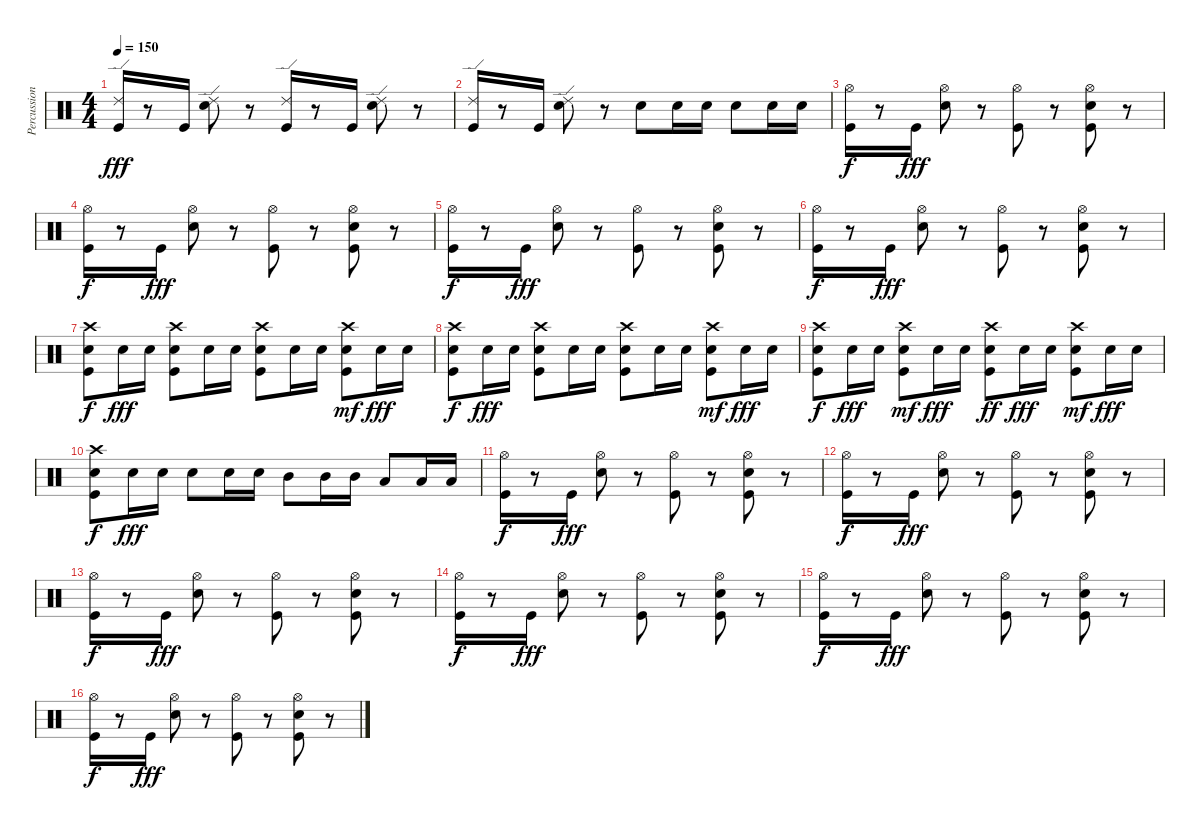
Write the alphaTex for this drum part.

\track ("Percussion" "Percussion") {instrument percussion}
\staff {score}
\articulation defaults
\ts (4 4)
\tempo 150
\clef neutral
\ks c
("Kick (hit)" "Ride (edge) 2").16{dy fff} r.8 "Kick (hit)".16 ("Electric Snare (hit)" "Ride (edge) 2").8 r.8 ("Kick (hit)" "Ride (edge) 2").16 r.8 "Kick (hit)".16 ("Electric Snare (hit)" "Ride (edge) 2").8 r.8 |
("Kick (hit)" "Ride (edge) 2").16 r.8 "Kick (hit)".16 ("Electric Snare (hit)" "Ride (edge) 2").8 r.8 "Electric Snare (hit)".8 "Electric Snare (hit)".16 "Electric Snare (hit)".16 "Electric Snare (hit)".8 "Electric Snare (hit)".16 "Electric Snare (hit)".16 |
("Kick (hit)" "Hi-Hat (open)").16{dy f} r.8 "Kick (hit)".16{dy fff} ("Electric Snare (hit)" "Hi-Hat (open)").8 r.8 ("Kick (hit)" "Hi-Hat (open)").8 r.8 ("Kick (hit)" "Electric Snare (hit)" "Hi-Hat (open)").8 r.8 |
("Kick (hit)" "Hi-Hat (open)").16{dy f} r.8 "Kick (hit)".16{dy fff} ("Electric Snare (hit)" "Hi-Hat (open)").8 r.8 ("Kick (hit)" "Hi-Hat (open)").8 r.8 ("Kick (hit)" "Electric Snare (hit)" "Hi-Hat (open)").8 r.8 |
("Kick (hit)" "Hi-Hat (open)").16{dy f} r.8 "Kick (hit)".16{dy fff} ("Electric Snare (hit)" "Hi-Hat (open)").8 r.8 ("Kick (hit)" "Hi-Hat (open)").8 r.8 ("Kick (hit)" "Electric Snare (hit)" "Hi-Hat (open)").8 r.8 |
("Kick (hit)" "Hi-Hat (open)").16{dy f} r.8 "Kick (hit)".16{dy fff} ("Electric Snare (hit)" "Hi-Hat (open)").8 r.8 ("Kick (hit)" "Hi-Hat (open)").8 r.8 ("Kick (hit)" "Electric Snare (hit)" "Hi-Hat (open)").8 r.8 |
("Kick (hit)" "Electric Snare (hit)" "Crash high (hit)").8{dy f} "Electric Snare (hit)".16{dy fff} "Electric Snare (hit)".16 ("Kick (hit)" "Electric Snare (hit)" "Crash high (hit)").8 "Electric Snare (hit)".16 "Electric Snare (hit)".16 ("Kick (hit)" "Electric Snare (hit)" "Crash high (hit)").8 "Electric Snare (hit)".16 "Electric Snare (hit)".16 ("Kick (hit)" "Electric Snare (hit)" "Crash high (hit)").8{dy mf} "Electric Snare (hit)".16{dy fff} "Electric Snare (hit)".16 |
("Kick (hit)" "Electric Snare (hit)" "Crash high (hit)").8{dy f} "Electric Snare (hit)".16{dy fff} "Electric Snare (hit)".16 ("Kick (hit)" "Electric Snare (hit)" "Crash high (hit)").8 "Electric Snare (hit)".16 "Electric Snare (hit)".16 ("Kick (hit)" "Electric Snare (hit)" "Crash high (hit)").8 "Electric Snare (hit)".16 "Electric Snare (hit)".16 ("Kick (hit)" "Electric Snare (hit)" "Crash high (hit)").8{dy mf} "Electric Snare (hit)".16{dy fff} "Electric Snare (hit)".16 |
("Kick (hit)" "Electric Snare (hit)" "Crash high (hit)").8{dy f} "Electric Snare (hit)".16{dy fff} "Electric Snare (hit)".16 ("Kick (hit)" "Crash high (hit)" "Electric Snare (hit)").8{dy mf} "Electric Snare (hit)".16{dy fff} "Electric Snare (hit)".16 ("Electric Snare (hit)" "Kick (hit)" "Crash high (hit)").8{dy ff} "Electric Snare (hit)".16{dy fff} "Electric Snare (hit)".16 ("Kick (hit)" "Electric Snare (hit)" "Crash high (hit)").8{dy mf} "Electric Snare (hit)".16{dy fff} "Electric Snare (hit)".16 |
("Kick (hit)" "Electric Snare (hit)" "Crash high (hit)").8{dy f} "Electric Snare (hit)".16{dy fff} "Electric Snare (hit)".16 "Electric Snare (hit)".8 "Electric Snare (hit)".16 "Electric Snare (hit)".16 "Mid Tom (hit)".8 "Mid Tom (hit)".16 "Mid Tom (hit)".16 "Low Tom (hit)".8 "Low Tom (hit)".16 "Low Tom (hit)".16 |
("Kick (hit)" "Hi-Hat (open)").16{dy f} r.8 "Kick (hit)".16{dy fff} ("Electric Snare (hit)" "Hi-Hat (open)").8 r.8 ("Kick (hit)" "Hi-Hat (open)").8 r.8 ("Kick (hit)" "Electric Snare (hit)" "Hi-Hat (open)").8 r.8 |
("Kick (hit)" "Hi-Hat (open)").16{dy f} r.8 "Kick (hit)".16{dy fff} ("Electric Snare (hit)" "Hi-Hat (open)").8 r.8 ("Kick (hit)" "Hi-Hat (open)").8 r.8 ("Kick (hit)" "Electric Snare (hit)" "Hi-Hat (open)").8 r.8 |
("Kick (hit)" "Hi-Hat (open)").16{dy f} r.8 "Kick (hit)".16{dy fff} ("Electric Snare (hit)" "Hi-Hat (open)").8 r.8 ("Kick (hit)" "Hi-Hat (open)").8 r.8 ("Kick (hit)" "Electric Snare (hit)" "Hi-Hat (open)").8 r.8 |
("Kick (hit)" "Hi-Hat (open)").16{dy f} r.8 "Kick (hit)".16{dy fff} ("Electric Snare (hit)" "Hi-Hat (open)").8 r.8 ("Kick (hit)" "Hi-Hat (open)").8 r.8 ("Kick (hit)" "Electric Snare (hit)" "Hi-Hat (open)").8 r.8 |
("Kick (hit)" "Hi-Hat (open)").16{dy f} r.8 "Kick (hit)".16{dy fff} ("Electric Snare (hit)" "Hi-Hat (open)").8 r.8 ("Kick (hit)" "Hi-Hat (open)").8 r.8 ("Kick (hit)" "Electric Snare (hit)" "Hi-Hat (open)").8 r.8 |
("Kick (hit)" "Hi-Hat (open)").16{dy f} r.8 "Kick (hit)".16{dy fff} ("Electric Snare (hit)" "Hi-Hat (open)").8 r.8 ("Kick (hit)" "Hi-Hat (open)").8 r.8 ("Kick (hit)" "Electric Snare (hit)" "Hi-Hat (open)").8 r.8
